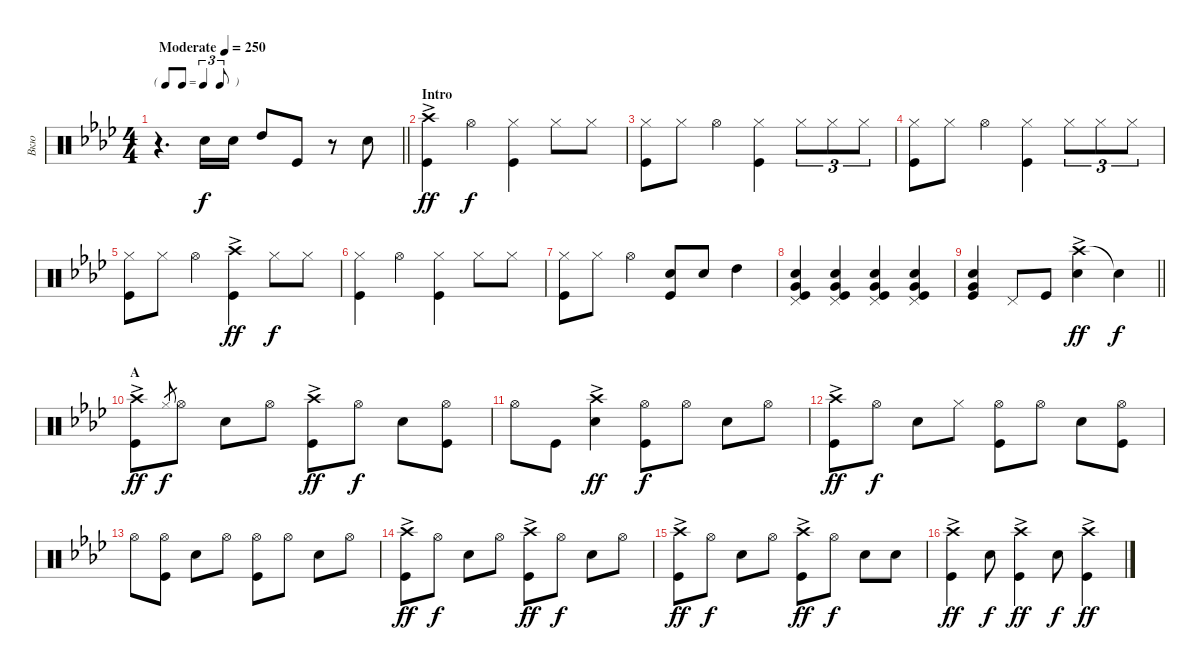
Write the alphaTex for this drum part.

\track ("Вкю" "Вкю") {instrument percussion}
\staff {score}
\articulation defaults
\ts (4 4)
\tf triplet8th
\tempo (250 "Moderate")
\clef neutral
\barLineRight lightlight
\ks ab
r.4{d dy f} "Snare (hit) 2".16 "Snare (hit) 2".16 "High Tom (hit)".8 "Kick (hit)".8 r.8 "Snare (hit) 2".8 |
\section ("" "Intro")
("Crash high (hit)"{ac} "Kick (hit)"{ac}).4{dy ff} "Hi-Hat (open)".4{dy f} ("Hi-Hat (closed)" "Kick (hit)").4 "Hi-Hat (closed)".8 "Hi-Hat (closed)".8 |
("Hi-Hat (closed)" "Kick (hit)").8 "Hi-Hat (closed)".8 "Hi-Hat (open)".4 ("Hi-Hat (closed)" "Kick (hit)").4 "Hi-Hat (closed)".8{tu (3 2)} "Hi-Hat (closed)".8{tu (3 2)} "Hi-Hat (closed)".8{tu (3 2)} |
("Hi-Hat (closed)" "Kick (hit)").8 "Hi-Hat (closed)".8 "Hi-Hat (open)".4 ("Hi-Hat (closed)" "Kick (hit)").4 "Hi-Hat (closed)".8{tu (3 2)} "Hi-Hat (closed)".8{tu (3 2)} "Hi-Hat (closed)".8{tu (3 2)} |
("Hi-Hat (closed)" "Kick (hit)").8 "Hi-Hat (closed)".8 "Hi-Hat (open)".4 ("Crash high (hit)"{ac} "Kick (hit)"{ac}).4{dy ff} "Hi-Hat (closed)".8{dy f} "Hi-Hat (closed)".8 |
("Hi-Hat (closed)" "Kick (hit)").4 "Hi-Hat (open)".4 ("Hi-Hat (closed)" "Kick (hit)").4 "Hi-Hat (closed)".8 "Hi-Hat (closed)".8 |
("Hi-Hat (closed)" "Kick (hit)").8 "Hi-Hat (closed)".8 "Hi-Hat (open)".4 ("Snare (hit) 2" "Kick (hit)").8 "Snare (hit) 2".8 "High Tom (hit)".4 |
("Very Low Tom (hit)" "Snare (hit) 2" "Kick (hit)" "Pedal Hi-Hat (hit)").4 ("Very Low Tom (hit)" "Snare (hit) 2" "Kick (hit)" "Pedal Hi-Hat (hit)").4 ("Very Low Tom (hit)" "Snare (hit) 2" "Kick (hit)" "Pedal Hi-Hat (hit)").4 ("Very Low Tom (hit)" "Snare (hit) 2" "Kick (hit)" "Pedal Hi-Hat (hit)").4 |
\barLineRight lightlight
("Very Low Tom (hit)" "Snare (hit) 2" "Kick (hit)").4 "Pedal Hi-Hat (hit)".8 "Kick (hit)".8 ("Crash high (hit)"{ac} "Snare (hit) 2"{ac}).4{dy ff} "Snare (hit)"{t}.4{dy f} |
\section ("" "A")
("Crash high (hit)"{ac} "Kick (hit)"{ac}).8{dy ff} "Hi-Hat (closed)".8{gr dy f} "Hi-Hat (open)".8 "Snare (hit) 2".8 "Hi-Hat (open)".8 ("Crash high (hit)"{ac} "Kick (hit)"{ac}).8{dy ff} "Hi-Hat (open)".8{dy f} "Snare (hit) 2".8 ("Hi-Hat (open)" "Kick (hit)").8 |
"Hi-Hat (open)".8 "Kick (hit)".8 ("Crash high (hit)"{ac} "Snare (hit) 2"{ac}).4{dy ff} ("Hi-Hat (open)" "Kick (hit)").8{dy f} "Hi-Hat (open)".8 "Snare (hit) 2".8 "Hi-Hat (open)".8 |
("Crash high (hit)"{ac} "Kick (hit)"{ac}).8{dy ff} "Hi-Hat (open)".8{dy f} "Snare (hit) 2".8 "Hi-Hat (closed)".8 ("Hi-Hat (open)" "Kick (hit)").8 "Hi-Hat (open)".8 "Snare (hit) 2".8 ("Hi-Hat (open)" "Kick (hit)").8 |
"Hi-Hat (open)".8 ("Hi-Hat (open)" "Kick (hit)").8 "Snare (hit) 2".8 "Hi-Hat (open)".8 ("Hi-Hat (open)" "Kick (hit)").8 "Hi-Hat (open)".8 "Snare (hit) 2".8 "Hi-Hat (open)".8 |
("Crash high (hit)"{ac} "Kick (hit)"{ac}).8{dy ff} "Hi-Hat (open)".8{dy f} "Snare (hit) 2".8 "Hi-Hat (open)".8 ("Crash high (hit)"{ac} "Kick (hit)"{ac}).8{dy ff} "Hi-Hat (open)".8{dy f} "Snare (hit) 2".8 "Hi-Hat (open)".8 |
("Crash high (hit)"{ac} "Kick (hit)"{ac}).8{dy ff} "Hi-Hat (open)".8{dy f} "Snare (hit) 2".8 "Hi-Hat (open)".8 ("Crash high (hit)"{ac} "Kick (hit)"{ac}).8{dy ff} "Hi-Hat (open)".8{dy f} "Snare (hit) 2".8 "Snare (hit) 2".8 |
("Crash high (hit)"{ac} "Kick (hit)"{ac}).4{dy ff} "Snare (hit) 2".8{dy f} ("Crash high (hit)"{ac} "Kick (hit)"{ac}).4{dy ff} "Snare (hit) 2".8{dy f} ("Crash high (hit)"{ac} "Kick (hit)"{ac}).4{dy ff}
